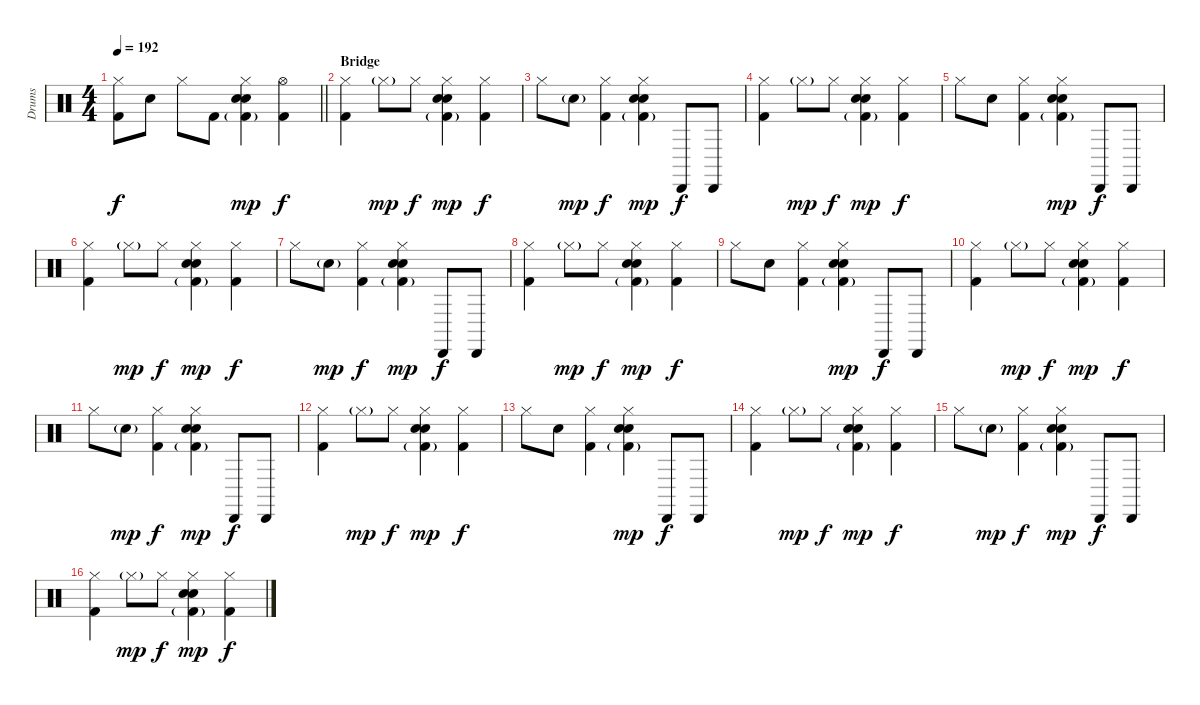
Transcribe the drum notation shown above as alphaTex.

\track ("Drums" "Drums") {instrument percussion}
\staff {score}
\articulation defaults
\ts (4 4)
\tempo 192
\clef neutral
\barLineRight lightlight
\ks c
("Hi-Hat (closed)" "Kick (hit) 2").8{dy f} "Electric Snare (hit)".8 "Hi-Hat (closed)".8 "Kick (hit) 2".8 ("Hi-Hat (closed)" "Hand Clap (hit)" "Electric Snare (hit)" "Kick (hit) 2"{g}).4{dy mp} ("Hi-Hat (open)" "Kick (hit) 2").4{dy f} |
\section ("" "Bridge")
("Hi-Hat (closed)" "Kick (hit) 2").4 "Hi-Hat (closed)"{g}.8{dy mp} "Hi-Hat (closed)".8{dy f} ("Hi-Hat (closed)" "Hand Clap (hit)" "Electric Snare (hit)" "Kick (hit) 2"{g}).4{dy mp} ("Hi-Hat (closed)" "Kick (hit) 2").4{dy f} |
"Hi-Hat (closed)".8 "Electric Snare (hit)"{g}.8{dy mp} ("Hi-Hat (closed)" "Kick (hit) 2").4{dy f} ("Hi-Hat (closed)" "Hand Clap (hit)" "Electric Snare (hit)" "Kick (hit) 2"{g}).4{dy mp} "Cabasa (hit)".8{dy f} "Cabasa (hit)".8 |
("Hi-Hat (closed)" "Kick (hit) 2").4 "Hi-Hat (closed)"{g}.8{dy mp} "Hi-Hat (closed)".8{dy f} ("Hi-Hat (closed)" "Hand Clap (hit)" "Electric Snare (hit)" "Kick (hit) 2"{g}).4{dy mp} ("Hi-Hat (closed)" "Kick (hit) 2").4{dy f} |
"Hi-Hat (closed)".8 "Electric Snare (hit)".8 ("Hi-Hat (closed)" "Kick (hit) 2").4 ("Hi-Hat (closed)" "Hand Clap (hit)" "Electric Snare (hit)" "Kick (hit) 2"{g}).4{dy mp} "Cabasa (hit)".8{dy f} "Cabasa (hit)".8 |
("Hi-Hat (closed)" "Kick (hit) 2").4 "Hi-Hat (closed)"{g}.8{dy mp} "Hi-Hat (closed)".8{dy f} ("Hi-Hat (closed)" "Hand Clap (hit)" "Electric Snare (hit)" "Kick (hit) 2"{g}).4{dy mp} ("Hi-Hat (closed)" "Kick (hit) 2").4{dy f} |
"Hi-Hat (closed)".8 "Electric Snare (hit)"{g}.8{dy mp} ("Hi-Hat (closed)" "Kick (hit) 2").4{dy f} ("Hi-Hat (closed)" "Hand Clap (hit)" "Electric Snare (hit)" "Kick (hit) 2"{g}).4{dy mp} "Cabasa (hit)".8{dy f} "Cabasa (hit)".8 |
("Hi-Hat (closed)" "Kick (hit) 2").4 "Hi-Hat (closed)"{g}.8{dy mp} "Hi-Hat (closed)".8{dy f} ("Hi-Hat (closed)" "Hand Clap (hit)" "Electric Snare (hit)" "Kick (hit) 2"{g}).4{dy mp} ("Hi-Hat (closed)" "Kick (hit) 2").4{dy f} |
"Hi-Hat (closed)".8 "Electric Snare (hit)".8 ("Hi-Hat (closed)" "Kick (hit) 2").4 ("Hi-Hat (closed)" "Hand Clap (hit)" "Electric Snare (hit)" "Kick (hit) 2"{g}).4{dy mp} "Cabasa (hit)".8{dy f} "Cabasa (hit)".8 |
("Hi-Hat (closed)" "Kick (hit) 2").4 "Hi-Hat (closed)"{g}.8{dy mp} "Hi-Hat (closed)".8{dy f} ("Hi-Hat (closed)" "Hand Clap (hit)" "Electric Snare (hit)" "Kick (hit) 2"{g}).4{dy mp} ("Hi-Hat (closed)" "Kick (hit) 2").4{dy f} |
"Hi-Hat (closed)".8 "Electric Snare (hit)"{g}.8{dy mp} ("Hi-Hat (closed)" "Kick (hit) 2").4{dy f} ("Hi-Hat (closed)" "Hand Clap (hit)" "Electric Snare (hit)" "Kick (hit) 2"{g}).4{dy mp} "Cabasa (hit)".8{dy f} "Cabasa (hit)".8 |
("Hi-Hat (closed)" "Kick (hit) 2").4 "Hi-Hat (closed)"{g}.8{dy mp} "Hi-Hat (closed)".8{dy f} ("Hi-Hat (closed)" "Hand Clap (hit)" "Electric Snare (hit)" "Kick (hit) 2"{g}).4{dy mp} ("Hi-Hat (closed)" "Kick (hit) 2").4{dy f} |
"Hi-Hat (closed)".8 "Electric Snare (hit)".8 ("Hi-Hat (closed)" "Kick (hit) 2").4 ("Hi-Hat (closed)" "Hand Clap (hit)" "Electric Snare (hit)" "Kick (hit) 2"{g}).4{dy mp} "Cabasa (hit)".8{dy f} "Cabasa (hit)".8 |
("Hi-Hat (closed)" "Kick (hit) 2").4 "Hi-Hat (closed)"{g}.8{dy mp} "Hi-Hat (closed)".8{dy f} ("Hi-Hat (closed)" "Hand Clap (hit)" "Electric Snare (hit)" "Kick (hit) 2"{g}).4{dy mp} ("Hi-Hat (closed)" "Kick (hit) 2").4{dy f} |
"Hi-Hat (closed)".8 "Electric Snare (hit)"{g}.8{dy mp} ("Hi-Hat (closed)" "Kick (hit) 2").4{dy f} ("Hi-Hat (closed)" "Hand Clap (hit)" "Electric Snare (hit)" "Kick (hit) 2"{g}).4{dy mp} "Cabasa (hit)".8{dy f} "Cabasa (hit)".8 |
("Hi-Hat (closed)" "Kick (hit) 2").4 "Hi-Hat (closed)"{g}.8{dy mp} "Hi-Hat (closed)".8{dy f} ("Hi-Hat (closed)" "Hand Clap (hit)" "Electric Snare (hit)" "Kick (hit) 2"{g}).4{dy mp} ("Hi-Hat (closed)" "Kick (hit) 2").4{dy f}
